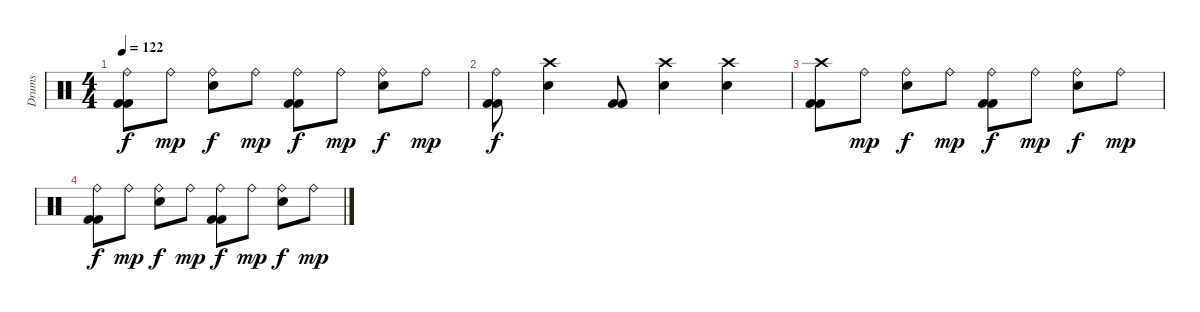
\track ("Drums" "Drums") {instrument percussion}
\staff {score}
\articulation defaults
\ts (4 4)
\tempo 122
\clef neutral
\ks c
("Ride (bell)" "Kick (hit) 2" "Kick (hit) 2").8{dy f} "Ride (bell)".8{dy mp} ("Ride (bell)" "Snare (hit) 2").8{dy f} "Ride (bell)".8{dy mp} ("Ride (bell)" "Kick (hit) 2" "Kick (hit) 2").8{dy f} "Ride (bell)".8{dy mp} ("Ride (bell)" "Snare (hit) 2").8{dy f} "Ride (bell)".8{dy mp} |
("Ride (bell)" "Kick (hit) 2" "Kick (hit) 2").8{dy f} ("Crash high (hit)" "Snare (hit) 2").4 ("Kick (hit) 2" "Kick (hit) 2").8 ("Crash high (hit)" "Snare (hit) 2").4 ("Crash high (hit)" "Snare (hit) 2").4 |
("Crash high (hit)" "Kick (hit) 2" "Kick (hit) 2").8 "Ride (bell)".8{dy mp} ("Ride (bell)" "Snare (hit) 2").8{dy f} "Ride (bell)".8{dy mp} ("Ride (bell)" "Kick (hit) 2" "Kick (hit) 2").8{dy f} "Ride (bell)".8{dy mp} ("Ride (bell)" "Snare (hit) 2").8{dy f} "Ride (bell)".8{dy mp} |
("Ride (bell)" "Kick (hit) 2" "Kick (hit) 2").8{dy f} "Ride (bell)".8{dy mp} ("Ride (bell)" "Snare (hit) 2").8{dy f} "Ride (bell)".8{dy mp} ("Ride (bell)" "Kick (hit) 2" "Kick (hit) 2").8{dy f} "Ride (bell)".8{dy mp} ("Ride (bell)" "Snare (hit) 2").8{dy f} "Ride (bell)".8{dy mp}
